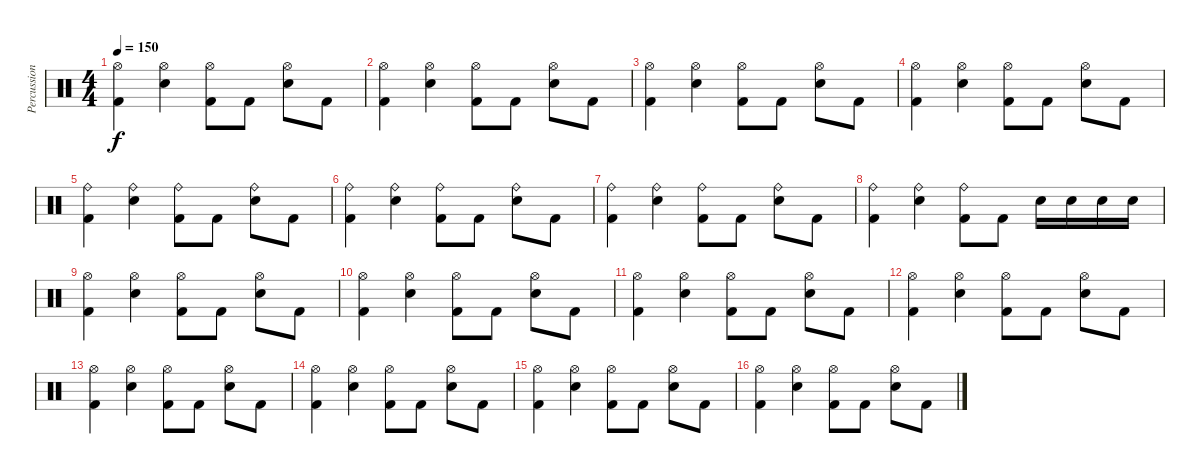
\track ("Percussions" "Percussion") {instrument percussion}
\staff {score}
\articulation defaults
\ts (4 4)
\tempo 150
\clef neutral
\ks c
("Kick (hit) 2" "Hi-Hat (open)").4{dy f} ("Snare (hit) 2" "Hi-Hat (open)").4 ("Kick (hit) 2" "Hi-Hat (open)").8 "Kick (hit) 2".8 ("Snare (hit) 2" "Hi-Hat (open)").8 "Kick (hit) 2".8 |
("Kick (hit) 2" "Hi-Hat (open)").4 ("Snare (hit) 2" "Hi-Hat (open)").4 ("Kick (hit) 2" "Hi-Hat (open)").8 "Kick (hit) 2".8 ("Snare (hit) 2" "Hi-Hat (open)").8 "Kick (hit) 2".8 |
("Kick (hit) 2" "Hi-Hat (open)").4 ("Snare (hit) 2" "Hi-Hat (open)").4 ("Kick (hit) 2" "Hi-Hat (open)").8 "Kick (hit) 2".8 ("Snare (hit) 2" "Hi-Hat (open)").8 "Kick (hit) 2".8 |
("Kick (hit) 2" "Hi-Hat (open)").4 ("Snare (hit) 2" "Hi-Hat (open)").4 ("Kick (hit) 2" "Hi-Hat (open)").8 "Kick (hit) 2".8 ("Snare (hit) 2" "Hi-Hat (open)").8 "Kick (hit) 2".8 |
("Kick (hit) 2" "Ride (bell)").4 ("Snare (hit) 2" "Ride (bell)").4 ("Kick (hit) 2" "Ride (bell)").8 "Kick (hit) 2".8 ("Snare (hit) 2" "Ride (bell)").8 "Kick (hit) 2".8 |
("Kick (hit) 2" "Ride (bell)").4 ("Snare (hit) 2" "Ride (bell)").4 ("Kick (hit) 2" "Ride (bell)").8 "Kick (hit) 2".8 ("Snare (hit) 2" "Ride (bell)").8 "Kick (hit) 2".8 |
("Kick (hit) 2" "Ride (bell)").4 ("Snare (hit) 2" "Ride (bell)").4 ("Kick (hit) 2" "Ride (bell)").8 "Kick (hit) 2".8 ("Snare (hit) 2" "Ride (bell)").8 "Kick (hit) 2".8 |
("Kick (hit) 2" "Ride (bell)").4 ("Snare (hit) 2" "Ride (bell)").4 ("Kick (hit) 2" "Ride (bell)").8 "Kick (hit) 2".8 "Snare (hit) 2".16 "Snare (hit) 2".16 "Snare (hit) 2".16 "Snare (hit) 2".16 |
("Kick (hit) 2" "Hi-Hat (open)").4 ("Snare (hit) 2" "Hi-Hat (open)").4 ("Kick (hit) 2" "Hi-Hat (open)").8 "Kick (hit) 2".8 ("Snare (hit) 2" "Hi-Hat (open)").8 "Kick (hit) 2".8 |
("Kick (hit) 2" "Hi-Hat (open)").4 ("Snare (hit) 2" "Hi-Hat (open)").4 ("Kick (hit) 2" "Hi-Hat (open)").8 "Kick (hit) 2".8 ("Snare (hit) 2" "Hi-Hat (open)").8 "Kick (hit) 2".8 |
("Kick (hit) 2" "Hi-Hat (open)").4 ("Snare (hit) 2" "Hi-Hat (open)").4 ("Kick (hit) 2" "Hi-Hat (open)").8 "Kick (hit) 2".8 ("Snare (hit) 2" "Hi-Hat (open)").8 "Kick (hit) 2".8 |
("Kick (hit) 2" "Hi-Hat (open)").4 ("Snare (hit) 2" "Hi-Hat (open)").4 ("Kick (hit) 2" "Hi-Hat (open)").8 "Kick (hit) 2".8 ("Snare (hit) 2" "Hi-Hat (open)").8 "Kick (hit) 2".8 |
("Kick (hit) 2" "Hi-Hat (open)").4 ("Snare (hit) 2" "Hi-Hat (open)").4 ("Kick (hit) 2" "Hi-Hat (open)").8 "Kick (hit) 2".8 ("Snare (hit) 2" "Hi-Hat (open)").8 "Kick (hit) 2".8 |
("Kick (hit) 2" "Hi-Hat (open)").4 ("Snare (hit) 2" "Hi-Hat (open)").4 ("Kick (hit) 2" "Hi-Hat (open)").8 "Kick (hit) 2".8 ("Snare (hit) 2" "Hi-Hat (open)").8 "Kick (hit) 2".8 |
("Kick (hit) 2" "Hi-Hat (open)").4 ("Snare (hit) 2" "Hi-Hat (open)").4 ("Kick (hit) 2" "Hi-Hat (open)").8 "Kick (hit) 2".8 ("Snare (hit) 2" "Hi-Hat (open)").8 "Kick (hit) 2".8 |
("Kick (hit) 2" "Hi-Hat (open)").4 ("Snare (hit) 2" "Hi-Hat (open)").4 ("Kick (hit) 2" "Hi-Hat (open)").8 "Kick (hit) 2".8 ("Snare (hit) 2" "Hi-Hat (open)").8 "Kick (hit) 2".8
